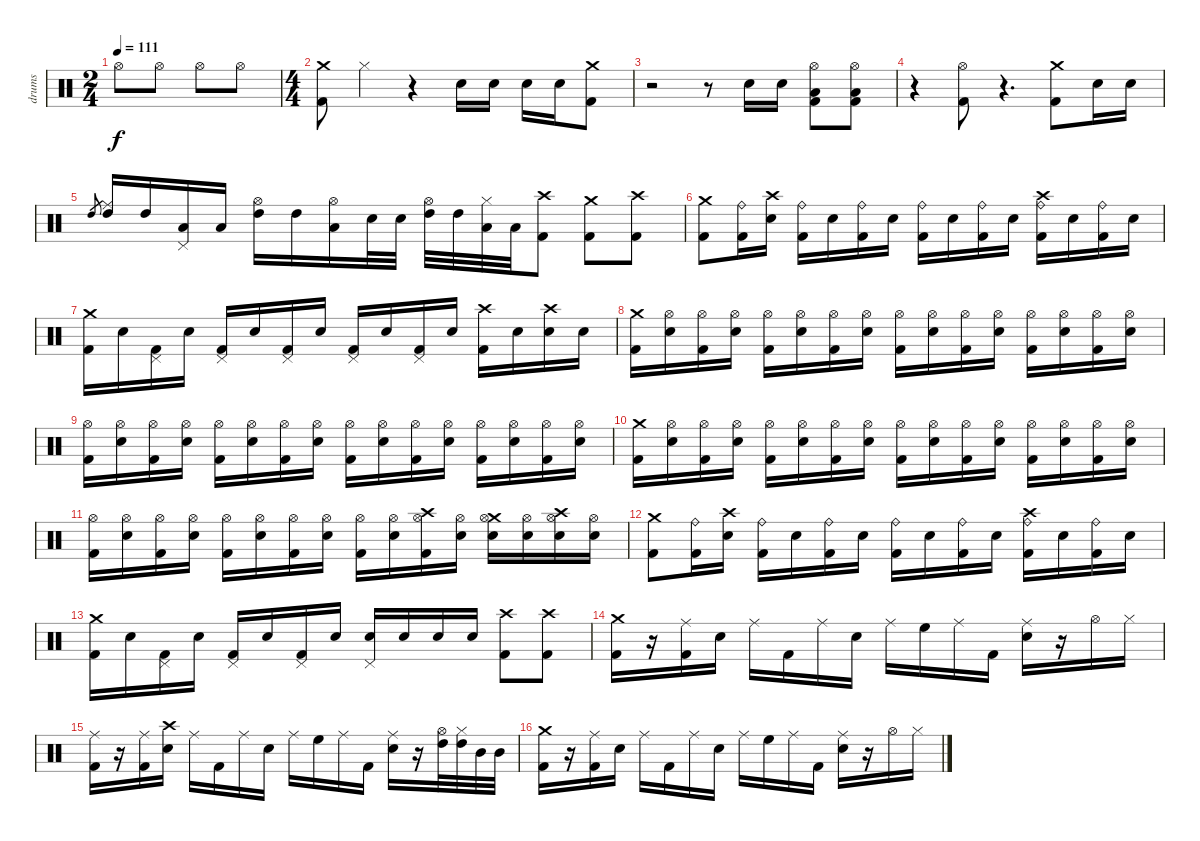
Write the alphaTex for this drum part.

\track ("drums" "drums") {instrument percussion}
\staff {score}
\articulation defaults
\ts (2 4)
\tempo 111
\clef neutral
\ks c "Hi-Hat (open)".8{dy f} "Hi-Hat (open)".8 "Hi-Hat (open)".8 "Hi-Hat (open)".8
|
\ts (4 4)
("Crash medium (hit)" "Kick (hit) 2").8 "Hi-Hat (closed)".4 r.4 "Electric Snare (hit)".16 "Electric Snare (hit)".16 "Electric Snare (hit)".16 "Electric Snare (hit)".16 ("Crash medium (hit)" "Kick (hit) 2").8 |
r.2 r.8 "Electric Snare (hit)".16 "Electric Snare (hit)".16 ("Hi-Hat (open)" "Low Tom (hit)" "Kick (hit) 2").8 ("Hi-Hat (open)" "Low Tom (hit)" "Kick (hit) 2").8 |
r.4 ("Hi-Hat (open)" "Kick (hit) 2").8 r.4{d} ("Crash medium (hit)" "Kick (hit) 2").8 "Electric Snare (hit)".16 "Electric Snare (hit)".16 |
"High Tom (hit)".8{gr} ("Ride (middle)" "High Tom (hit)").16 "High Tom (hit)".16 ("Pedal Hi-Hat (hit)" "Low Tom (hit)").16 "Low Tom (hit)".16 ("Hi-Hat (open)" "High Tom (hit)").16 "High Tom (hit)".16 ("Hi-Hat (open)" "Low Tom (hit)").16 "Electric Snare (hit)".32 "Electric Snare (hit)".32 ("Hi-Hat (open)" "High Tom (hit)").32 "High Tom (hit)".32 ("Hi-Hat (closed)" "Low Tom (hit)").32 "Low Tom (hit)".32 ("Crash high (hit)" "Kick (hit) 2").8 ("Crash medium (hit)" "Kick (hit) 2").8 ("Crash high (hit)" "Kick (hit) 2").8 |
("Crash medium (hit)" "Kick (hit) 2").8 ("Ride (bell)" "Kick (hit) 2").16 ("Crash high (hit)" "Electric Snare (hit)").16 ("Ride (bell)" "Kick (hit) 2").16 "Electric Snare (hit)".16 ("Ride (bell)" "Kick (hit) 2").16 "Electric Snare (hit)".16 ("Ride (bell)" "Kick (hit) 2").16 "Electric Snare (hit)".16 ("Ride (bell)" "Kick (hit) 2").16 "Electric Snare (hit)".16 ("Crash high (hit)" "Ride (bell)" "Kick (hit) 2").16 "Electric Snare (hit)".16 ("Ride (bell)" "Kick (hit) 2").16 "Electric Snare (hit)".16 |
("Crash medium (hit)" "Kick (hit) 2").16 "Electric Snare (hit)".16 ("Pedal Hi-Hat (hit)" "Kick (hit) 2").16 "Electric Snare (hit)".16 ("Pedal Hi-Hat (hit)" "Kick (hit) 2").16 "Electric Snare (hit)".16 ("Pedal Hi-Hat (hit)" "Kick (hit) 2").16 "Electric Snare (hit)".16 ("Pedal Hi-Hat (hit)" "Kick (hit) 2").16 "Electric Snare (hit)".16 ("Pedal Hi-Hat (hit)" "Kick (hit) 2").16 "Electric Snare (hit)".16 ("Crash high (hit)" "Kick (hit) 2").16 "Electric Snare (hit)".16 ("Crash high (hit)" "Electric Snare (hit)").16 "Electric Snare (hit)".16 |
("Crash medium (hit)" "Kick (hit) 2").16 ("Hi-Hat (open)" "Electric Snare (hit)").16 ("Hi-Hat (open)" "Kick (hit) 2").16 ("Hi-Hat (open)" "Electric Snare (hit)").16 ("Hi-Hat (open)" "Kick (hit) 2").16 ("Hi-Hat (open)" "Electric Snare (hit)").16 ("Hi-Hat (open)" "Kick (hit) 2").16 ("Hi-Hat (open)" "Electric Snare (hit)").16 ("Hi-Hat (open)" "Kick (hit) 2").16 ("Hi-Hat (open)" "Electric Snare (hit)").16 ("Hi-Hat (open)" "Kick (hit) 2").16 ("Hi-Hat (open)" "Electric Snare (hit)").16 ("Hi-Hat (open)" "Kick (hit) 2").16 ("Hi-Hat (open)" "Electric Snare (hit)").16 ("Hi-Hat (open)" "Kick (hit) 2").16 ("Hi-Hat (open)" "Electric Snare (hit)").16 |
("Hi-Hat (open)" "Kick (hit) 2").16 ("Hi-Hat (open)" "Electric Snare (hit)").16 ("Hi-Hat (open)" "Kick (hit) 2").16 ("Hi-Hat (open)" "Electric Snare (hit)").16 ("Hi-Hat (open)" "Kick (hit) 2").16 ("Hi-Hat (open)" "Electric Snare (hit)").16 ("Hi-Hat (open)" "Kick (hit) 2").16 ("Hi-Hat (open)" "Electric Snare (hit)").16 ("Hi-Hat (open)" "Kick (hit) 2").16 ("Hi-Hat (open)" "Electric Snare (hit)").16 ("Hi-Hat (open)" "Kick (hit) 2").16 ("Hi-Hat (open)" "Electric Snare (hit)").16 ("Hi-Hat (open)" "Kick (hit) 2").16 ("Hi-Hat (open)" "Electric Snare (hit)").16 ("Hi-Hat (open)" "Kick (hit) 2").16 ("Hi-Hat (open)" "Electric Snare (hit)").16 |
("Crash medium (hit)" "Kick (hit) 2").16 ("Hi-Hat (open)" "Electric Snare (hit)").16 ("Hi-Hat (open)" "Kick (hit) 2").16 ("Hi-Hat (open)" "Electric Snare (hit)").16 ("Hi-Hat (open)" "Kick (hit) 2").16 ("Hi-Hat (open)" "Electric Snare (hit)").16 ("Hi-Hat (open)" "Kick (hit) 2").16 ("Hi-Hat (open)" "Electric Snare (hit)").16 ("Hi-Hat (open)" "Kick (hit) 2").16 ("Hi-Hat (open)" "Electric Snare (hit)").16 ("Hi-Hat (open)" "Kick (hit) 2").16 ("Hi-Hat (open)" "Electric Snare (hit)").16 ("Hi-Hat (open)" "Kick (hit) 2").16 ("Hi-Hat (open)" "Electric Snare (hit)").16 ("Hi-Hat (open)" "Kick (hit) 2").16 ("Hi-Hat (open)" "Electric Snare (hit)").16 |
("Hi-Hat (open)" "Kick (hit) 2").16 ("Hi-Hat (open)" "Electric Snare (hit)").16 ("Hi-Hat (open)" "Kick (hit) 2").16 ("Hi-Hat (open)" "Electric Snare (hit)").16 ("Hi-Hat (open)" "Kick (hit) 2").16 ("Hi-Hat (open)" "Electric Snare (hit)").16 ("Hi-Hat (open)" "Kick (hit) 2").16 ("Hi-Hat (open)" "Electric Snare (hit)").16 ("Hi-Hat (open)" "Kick (hit) 2").16 ("Hi-Hat (open)" "Electric Snare (hit)").16 ("Crash high (hit)" "Hi-Hat (open)" "Kick (hit) 2").16 ("Hi-Hat (open)" "Electric Snare (hit)").16 ("Crash medium (hit)" "Hi-Hat (open)" "Electric Snare (hit)").16 ("Hi-Hat (open)" "Electric Snare (hit)").16 ("Crash high (hit)" "Hi-Hat (open)" "Electric Snare (hit)").16 ("Hi-Hat (open)" "Electric Snare (hit)").16 |
("Crash medium (hit)" "Kick (hit) 2").8 ("Ride (bell)" "Kick (hit) 2").16 ("Crash high (hit)" "Electric Snare (hit)").16 ("Ride (bell)" "Kick (hit) 2").16 "Electric Snare (hit)".16 ("Ride (bell)" "Kick (hit) 2").16 "Electric Snare (hit)".16 ("Ride (bell)" "Kick (hit) 2").16 "Electric Snare (hit)".16 ("Ride (bell)" "Kick (hit) 2").16 "Electric Snare (hit)".16 ("Crash high (hit)" "Ride (bell)" "Kick (hit) 2").16 "Electric Snare (hit)".16 ("Ride (bell)" "Kick (hit) 2").16 "Electric Snare (hit)".16 |
("Crash medium (hit)" "Kick (hit) 2").16 "Electric Snare (hit)".16 ("Pedal Hi-Hat (hit)" "Kick (hit) 2").16 "Electric Snare (hit)".16 ("Pedal Hi-Hat (hit)" "Kick (hit) 2").16 "Electric Snare (hit)".16 ("Pedal Hi-Hat (hit)" "Kick (hit) 2").16 "Electric Snare (hit)".16 ("Pedal Hi-Hat (hit)" "Electric Snare (hit)").16 "Electric Snare (hit)".16 "Electric Snare (hit)".16 "Electric Snare (hit)".16 ("Crash high (hit)" "Kick (hit) 2").8 ("Crash high (hit)" "Kick (hit) 2").8 |
("Crash medium (hit)" "Kick (hit) 2").16 r.16 ("Ride (middle)" "Kick (hit) 2").16 "Electric Snare (hit)".16 "Ride (middle)".16 "Kick (hit) 2".16 "Ride (middle)".16 "Electric Snare (hit)".16 "Ride (middle)".16 "High Floor Tom (hit)".16 "Ride (middle)".16 "Kick (hit) 2".16 ("Ride (middle)" "Electric Snare (hit)").16 r.16 "Hi-Hat (open)".16 "Hi-Hat (closed)".16 |
("Ride (middle)" "Kick (hit) 2").16 r.16 ("Ride (middle)" "Kick (hit) 2").16 ("Crash high (hit)" "Electric Snare (hit)").16 "Ride (middle)".16 "Kick (hit) 2".16 "Ride (middle)".16 "Electric Snare (hit)".16 "Ride (middle)".16 "High Floor Tom (hit)".16 "Ride (middle)".16 "Kick (hit) 2".16 ("Ride (middle)" "Electric Snare (hit)").16 r.16 ("Hi-Hat (open)" "High Tom (hit)").32 ("Hi-Hat (closed)" "High Tom (hit)").32 "Mid Tom (hit)".32 "Mid Tom (hit)".32 |
("Crash medium (hit)" "Kick (hit) 2").16 r.16 ("Ride (middle)" "Kick (hit) 2").16 "Electric Snare (hit)".16 "Ride (middle)".16 "Kick (hit) 2".16 "Ride (middle)".16 "Electric Snare (hit)".16 "Ride (middle)".16 "High Floor Tom (hit)".16 "Ride (middle)".16 "Kick (hit) 2".16 ("Ride (middle)" "Electric Snare (hit)").16 r.16 "Hi-Hat (open)".16 "Hi-Hat (closed)".16
